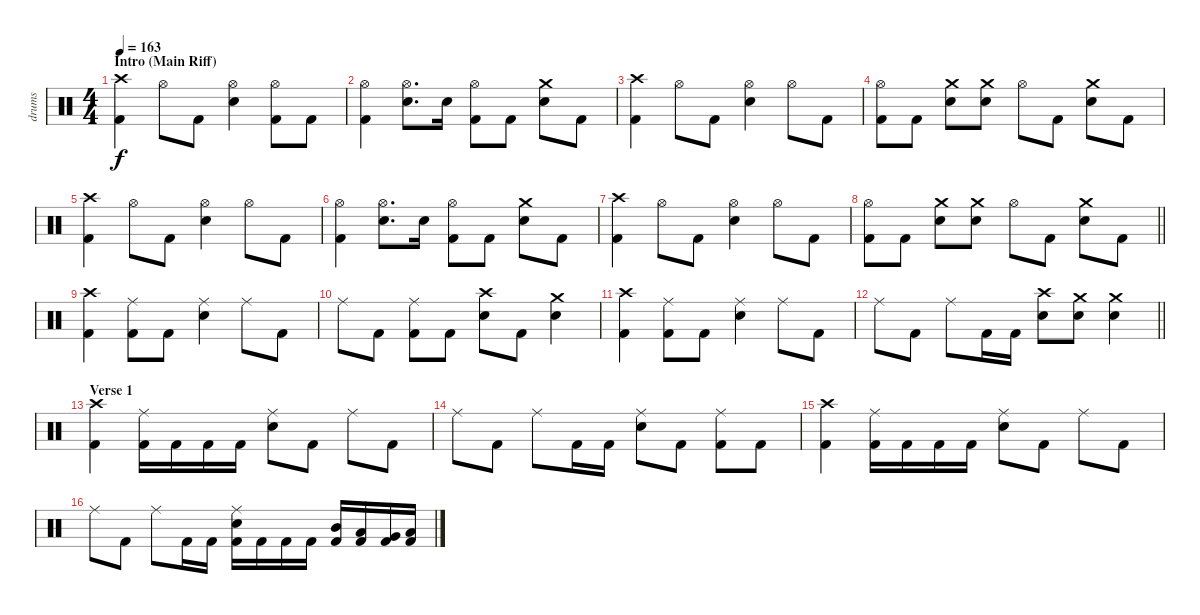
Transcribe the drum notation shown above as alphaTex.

\track ("drums" "drums") {instrument percussion}
\staff {score}
\articulation defaults
\ts (4 4)
\section ("" "Intro (Main Riff)")
\tempo 163
\clef neutral
\ks c
("Crash high (hit)" "Kick (hit) 2").4{dy f} "Hi-Hat (open)".8 "Kick (hit) 2".8 ("Hi-Hat (open)" "Snare (hit) 2").4 ("Hi-Hat (open)" "Kick (hit) 2").8 "Kick (hit) 2".8 |
("Hi-Hat (open)" "Kick (hit) 2").4 ("Hi-Hat (open)" "Snare (hit) 2").8{d} "Snare (hit) 2".16 ("Hi-Hat (open)" "Kick (hit) 2").8 "Kick (hit) 2".8 ("Crash medium (hit)" "Snare (hit) 2").8 "Kick (hit) 2".8 |
("Crash high (hit)" "Kick (hit) 2").4 "Hi-Hat (open)".8 "Kick (hit) 2".8 ("Hi-Hat (open)" "Snare (hit) 2").4 "Hi-Hat (open)".8 "Kick (hit) 2".8 |
("Hi-Hat (open)" "Kick (hit) 2").8 "Kick (hit) 2".8 ("Crash medium (hit)" "Snare (hit) 2").8 ("Crash medium (hit)" "Snare (hit) 2").8 "Hi-Hat (open)".8 "Kick (hit) 2".8 ("Crash medium (hit)" "Snare (hit) 2").8 "Kick (hit) 2".8 |
("Crash high (hit)" "Kick (hit) 2").4 "Hi-Hat (open)".8 "Kick (hit) 2".8 ("Hi-Hat (open)" "Snare (hit) 2").4 "Hi-Hat (open)".8 "Kick (hit) 2".8 |
("Hi-Hat (open)" "Kick (hit) 2").4 ("Hi-Hat (open)" "Snare (hit) 2").8{d} "Snare (hit) 2".16 ("Hi-Hat (open)" "Kick (hit) 2").8 "Kick (hit) 2".8 ("Crash medium (hit)" "Snare (hit) 2").8 "Kick (hit) 2".8 |
("Crash high (hit)" "Kick (hit) 2").4 "Hi-Hat (open)".8 "Kick (hit) 2".8 ("Hi-Hat (open)" "Snare (hit) 2").4 "Hi-Hat (open)".8 "Kick (hit) 2".8 |
\barLineRight lightlight
("Hi-Hat (open)" "Kick (hit) 2").8 "Kick (hit) 2".8 ("Crash medium (hit)" "Snare (hit) 2").8 ("Crash medium (hit)" "Snare (hit) 2").8 "Hi-Hat (open)".8 "Kick (hit) 2".8 ("Crash medium (hit)" "Snare (hit) 2").8 "Kick (hit) 2".8 |
("Crash high (hit)" "Kick (hit) 2").4 ("Ride (middle)" "Kick (hit) 2").8 "Kick (hit) 2".8 ("Ride (middle)" "Snare (hit) 2").4 "Ride (middle)".8 "Kick (hit) 2".8 |
"Ride (middle)".8 "Kick (hit) 2".8 ("Ride (middle)" "Kick (hit) 2").8 "Kick (hit) 2".8 ("Crash high (hit)" "Snare (hit) 2").8 "Kick (hit) 2".8 ("Crash medium (hit)" "Snare (hit) 2").4 |
("Crash high (hit)" "Kick (hit) 2").4 ("Ride (middle)" "Kick (hit) 2").8 "Kick (hit) 2".8 ("Ride (middle)" "Snare (hit) 2").4 "Ride (middle)".8 "Kick (hit) 2".8 |
\barLineRight lightlight "Ride (middle)".8 "Kick (hit) 2".8 "Ride (middle)".8 "Kick (hit) 2".16 "Kick (hit) 2".16
("Crash high (hit)" "Snare (hit) 2").8 ("Crash medium (hit)" "Snare (hit) 2").8 ("Crash medium (hit)" "Snare (hit) 2").4 |
\section ("" "Verse 1")
("Crash high (hit)" "Kick (hit) 2").4 ("Ride (middle)" "Kick (hit) 2").16 "Kick (hit) 2".16 "Kick (hit) 2".16 "Kick (hit) 2".16 ("Ride (middle)" "Snare (hit) 2").8 "Kick (hit) 2".8 "Ride (middle)".8 "Kick (hit) 2".8 |
"Ride (middle)".8 "Kick (hit) 2".8 "Ride (middle)".8 "Kick (hit) 2".16 "Kick (hit) 2".16 ("Ride (middle)" "Snare (hit) 2").8 "Kick (hit) 2".8 ("Ride (middle)" "Kick (hit) 2").8 "Kick (hit) 2".8 |
("Crash high (hit)" "Kick (hit) 2").4 ("Ride (middle)" "Kick (hit) 2").16 "Kick (hit) 2".16 "Kick (hit) 2".16 "Kick (hit) 2".16 ("Ride (middle)" "Snare (hit) 2").8 "Kick (hit) 2".8 "Ride (middle)".8 "Kick (hit) 2".8 |
"Ride (middle)".8 "Kick (hit) 2".8 "Ride (middle)".8 "Kick (hit) 2".16 "Kick (hit) 2".16 ("Ride (middle)" "Snare (hit) 2" "Kick (hit) 2").16 "Kick (hit) 2".16 "Kick (hit) 2".16 "Kick (hit) 2".16 ("Mid Tom (hit)" "Kick (hit) 2").16 ("Low Tom (hit)" "Kick (hit) 2").16 ("Very Low Tom (hit)" "Kick (hit) 2").16 ("Low Floor Tom (hit)" "Kick (hit) 2").16
